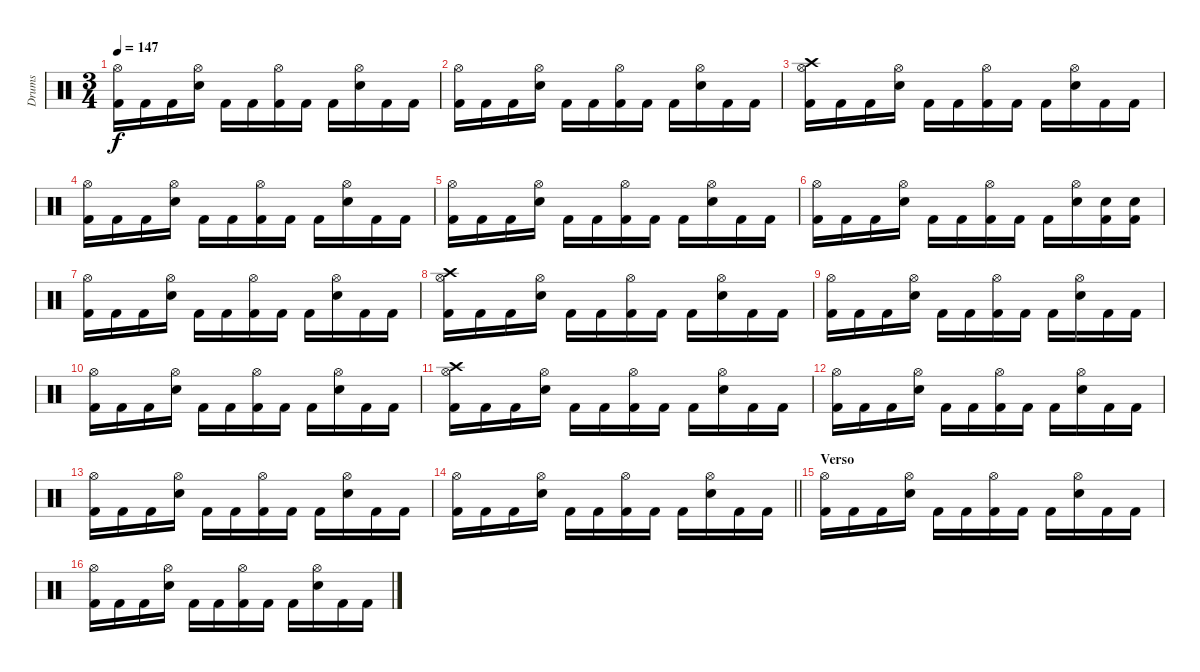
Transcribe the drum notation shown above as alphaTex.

\track ("Drums" "Drums") {instrument percussion}
\staff {score}
\articulation defaults
\ts (3 4)
\tempo 147
\clef neutral
\ks c
("Kick (hit) 2" "Hi-Hat (open)").16{dy f} "Kick (hit) 2".16 "Kick (hit) 2".16 ("Snare (hit) 2" "Hi-Hat (open)").16 "Kick (hit) 2".16 "Kick (hit) 2".16 ("Kick (hit) 2" "Hi-Hat (open)").16 "Kick (hit) 2".16 "Kick (hit) 2".16 ("Snare (hit) 2" "Hi-Hat (open)").16 "Kick (hit) 2".16 "Kick (hit) 2".16 |
("Kick (hit) 2" "Hi-Hat (open)").16 "Kick (hit) 2".16 "Kick (hit) 2".16 ("Snare (hit) 2" "Hi-Hat (open)").16 "Kick (hit) 2".16 "Kick (hit) 2".16 ("Kick (hit) 2" "Hi-Hat (open)").16 "Kick (hit) 2".16 "Kick (hit) 2".16 ("Snare (hit) 2" "Hi-Hat (open)").16 "Kick (hit) 2".16 "Kick (hit) 2".16 |
("Kick (hit) 2" "Crash high (hit)" "Hi-Hat (open)").16 "Kick (hit) 2".16 "Kick (hit) 2".16 ("Snare (hit) 2" "Hi-Hat (open)").16 "Kick (hit) 2".16 "Kick (hit) 2".16 ("Kick (hit) 2" "Hi-Hat (open)").16 "Kick (hit) 2".16 "Kick (hit) 2".16 ("Snare (hit) 2" "Hi-Hat (open)").16 "Kick (hit) 2".16 "Kick (hit) 2".16 |
("Kick (hit) 2" "Hi-Hat (open)").16 "Kick (hit) 2".16 "Kick (hit) 2".16 ("Snare (hit) 2" "Hi-Hat (open)").16 "Kick (hit) 2".16 "Kick (hit) 2".16 ("Kick (hit) 2" "Hi-Hat (open)").16 "Kick (hit) 2".16 "Kick (hit) 2".16 ("Snare (hit) 2" "Hi-Hat (open)").16 "Kick (hit) 2".16 "Kick (hit) 2".16 |
("Kick (hit) 2" "Hi-Hat (open)").16 "Kick (hit) 2".16 "Kick (hit) 2".16 ("Snare (hit) 2" "Hi-Hat (open)").16 "Kick (hit) 2".16 "Kick (hit) 2".16 ("Kick (hit) 2" "Hi-Hat (open)").16 "Kick (hit) 2".16 "Kick (hit) 2".16 ("Snare (hit) 2" "Hi-Hat (open)").16 "Kick (hit) 2".16 "Kick (hit) 2".16 |
("Kick (hit) 2" "Hi-Hat (open)").16 "Kick (hit) 2".16 "Kick (hit) 2".16 ("Snare (hit) 2" "Hi-Hat (open)").16 "Kick (hit) 2".16 "Kick (hit) 2".16 ("Kick (hit) 2" "Hi-Hat (open)").16 "Kick (hit) 2".16 "Kick (hit) 2".16 ("Snare (hit) 2" "Hi-Hat (open)").16 ("Kick (hit) 2" "Snare (hit) 2").16 ("Kick (hit) 2" "Snare (hit) 2").16 |
("Kick (hit) 2" "Hi-Hat (open)").16 "Kick (hit) 2".16 "Kick (hit) 2".16 ("Snare (hit) 2" "Hi-Hat (open)").16 "Kick (hit) 2".16 "Kick (hit) 2".16 ("Kick (hit) 2" "Hi-Hat (open)").16 "Kick (hit) 2".16 "Kick (hit) 2".16 ("Snare (hit) 2" "Hi-Hat (open)").16 "Kick (hit) 2".16 "Kick (hit) 2".16 |
("Kick (hit) 2" "Crash high (hit)" "Hi-Hat (open)").16 "Kick (hit) 2".16 "Kick (hit) 2".16 ("Snare (hit) 2" "Hi-Hat (open)").16 "Kick (hit) 2".16 "Kick (hit) 2".16 ("Kick (hit) 2" "Hi-Hat (open)").16 "Kick (hit) 2".16 "Kick (hit) 2".16 ("Snare (hit) 2" "Hi-Hat (open)").16 "Kick (hit) 2".16 "Kick (hit) 2".16 |
("Kick (hit) 2" "Hi-Hat (open)").16 "Kick (hit) 2".16 "Kick (hit) 2".16 ("Snare (hit) 2" "Hi-Hat (open)").16 "Kick (hit) 2".16 "Kick (hit) 2".16 ("Kick (hit) 2" "Hi-Hat (open)").16 "Kick (hit) 2".16 "Kick (hit) 2".16 ("Snare (hit) 2" "Hi-Hat (open)").16 "Kick (hit) 2".16 "Kick (hit) 2".16 |
("Kick (hit) 2" "Hi-Hat (open)").16 "Kick (hit) 2".16 "Kick (hit) 2".16 ("Snare (hit) 2" "Hi-Hat (open)").16 "Kick (hit) 2".16 "Kick (hit) 2".16 ("Kick (hit) 2" "Hi-Hat (open)").16 "Kick (hit) 2".16 "Kick (hit) 2".16 ("Snare (hit) 2" "Hi-Hat (open)").16 "Kick (hit) 2".16 "Kick (hit) 2".16 |
("Kick (hit) 2" "Crash high (hit)" "Hi-Hat (open)").16 "Kick (hit) 2".16 "Kick (hit) 2".16 ("Snare (hit) 2" "Hi-Hat (open)").16 "Kick (hit) 2".16 "Kick (hit) 2".16 ("Kick (hit) 2" "Hi-Hat (open)").16 "Kick (hit) 2".16 "Kick (hit) 2".16 ("Snare (hit) 2" "Hi-Hat (open)").16 "Kick (hit) 2".16 "Kick (hit) 2".16 |
("Kick (hit) 2" "Hi-Hat (open)").16 "Kick (hit) 2".16 "Kick (hit) 2".16 ("Snare (hit) 2" "Hi-Hat (open)").16 "Kick (hit) 2".16 "Kick (hit) 2".16 ("Kick (hit) 2" "Hi-Hat (open)").16 "Kick (hit) 2".16 "Kick (hit) 2".16 ("Snare (hit) 2" "Hi-Hat (open)").16 "Kick (hit) 2".16 "Kick (hit) 2".16 |
("Kick (hit) 2" "Hi-Hat (open)").16 "Kick (hit) 2".16 "Kick (hit) 2".16 ("Snare (hit) 2" "Hi-Hat (open)").16 "Kick (hit) 2".16 "Kick (hit) 2".16 ("Kick (hit) 2" "Hi-Hat (open)").16 "Kick (hit) 2".16 "Kick (hit) 2".16 ("Snare (hit) 2" "Hi-Hat (open)").16 "Kick (hit) 2".16 "Kick (hit) 2".16 |
\barLineRight lightlight
("Kick (hit) 2" "Hi-Hat (open)").16 "Kick (hit) 2".16 "Kick (hit) 2".16 ("Snare (hit) 2" "Hi-Hat (open)").16 "Kick (hit) 2".16 "Kick (hit) 2".16 ("Kick (hit) 2" "Hi-Hat (open)").16 "Kick (hit) 2".16 "Kick (hit) 2".16 ("Snare (hit) 2" "Hi-Hat (open)").16 "Kick (hit) 2".16 "Kick (hit) 2".16 |
\section ("" "Verso")
("Kick (hit) 2" "Hi-Hat (open)").16 "Kick (hit) 2".16 "Kick (hit) 2".16 ("Snare (hit) 2" "Hi-Hat (open)").16 "Kick (hit) 2".16 "Kick (hit) 2".16 ("Kick (hit) 2" "Hi-Hat (open)").16 "Kick (hit) 2".16 "Kick (hit) 2".16 ("Snare (hit) 2" "Hi-Hat (open)").16 "Kick (hit) 2".16 "Kick (hit) 2".16 |
("Kick (hit) 2" "Hi-Hat (open)").16 "Kick (hit) 2".16 "Kick (hit) 2".16 ("Snare (hit) 2" "Hi-Hat (open)").16 "Kick (hit) 2".16 "Kick (hit) 2".16 ("Kick (hit) 2" "Hi-Hat (open)").16 "Kick (hit) 2".16 "Kick (hit) 2".16 ("Snare (hit) 2" "Hi-Hat (open)").16 "Kick (hit) 2".16 "Kick (hit) 2".16
